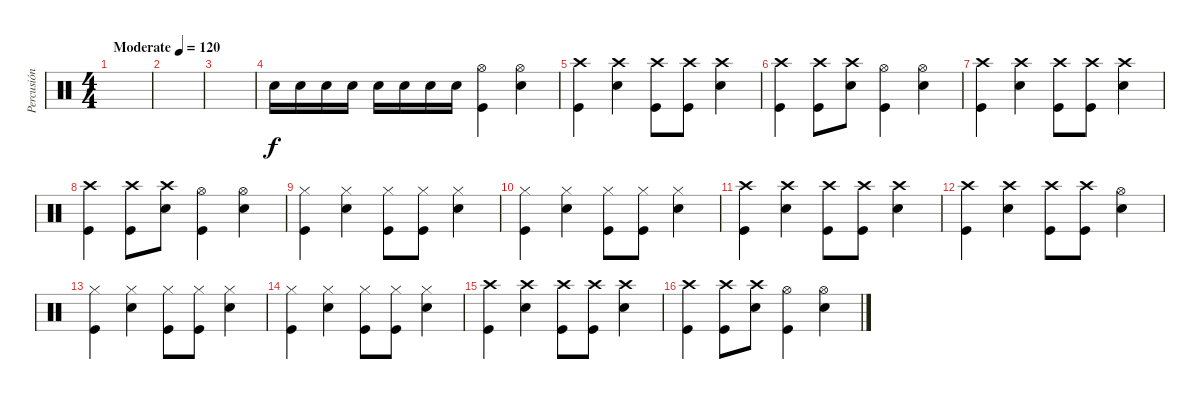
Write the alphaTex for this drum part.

\track ("Percusión" "Percusión") {instrument percussion}
\staff {score}
\articulation defaults
\ts (4 4)
\tempo (120 "Moderate")
\clef neutral
\ks c
|
|
|
"Snare (hit) 2".16 "Snare (hit) 2".16 "Snare (hit) 2".16 "Snare (hit) 2".16 "Snare (hit) 2".16 "Snare (hit) 2".16 "Snare (hit) 2".16 "Snare (hit) 2".16 ("Hi-Hat (open)" "Kick (hit)").4 ("Hi-Hat (open)" "Snare (hit) 2").4 |
("Crash high (hit)" "Kick (hit)").4 ("Crash high (hit)" "Snare (hit) 2").4 ("Crash high (hit)" "Kick (hit)").8 ("Crash high (hit)" "Kick (hit)").8 ("Crash high (hit)" "Snare (hit) 2").4 |
("Crash high (hit)" "Kick (hit)").4 ("Crash high (hit)" "Kick (hit)").8 ("Crash high (hit)" "Snare (hit) 2").8 ("Hi-Hat (open)" "Kick (hit)").4 ("Hi-Hat (open)" "Snare (hit) 2").4 |
("Crash high (hit)" "Kick (hit)").4 ("Crash high (hit)" "Snare (hit) 2").4 ("Crash high (hit)" "Kick (hit)").8 ("Crash high (hit)" "Kick (hit)").8 ("Crash high (hit)" "Snare (hit) 2").4 |
("Crash high (hit)" "Kick (hit)").4 ("Crash high (hit)" "Kick (hit)").8 ("Crash high (hit)" "Snare (hit) 2").8 ("Hi-Hat (open)" "Kick (hit)").4 ("Hi-Hat (open)" "Snare (hit) 2").4 |
("Hi-Hat (closed)" "Kick (hit)").4 ("Hi-Hat (closed)" "Snare (hit) 2").4 ("Hi-Hat (closed)" "Kick (hit)").8 ("Hi-Hat (closed)" "Kick (hit)").8 ("Hi-Hat (closed)" "Snare (hit) 2").4 |
("Hi-Hat (closed)" "Kick (hit)").4 ("Hi-Hat (closed)" "Snare (hit) 2").4 ("Hi-Hat (closed)" "Kick (hit)").8 ("Hi-Hat (closed)" "Kick (hit)").8 ("Hi-Hat (closed)" "Snare (hit) 2").4 |
("Crash high (hit)" "Kick (hit)").4 ("Crash high (hit)" "Snare (hit) 2").4 ("Crash high (hit)" "Kick (hit)").8 ("Crash high (hit)" "Kick (hit)").8 ("Crash high (hit)" "Snare (hit) 2").4 |
("Crash high (hit)" "Kick (hit)").4 ("Crash high (hit)" "Snare (hit) 2").4 ("Crash high (hit)" "Kick (hit)").8 ("Crash high (hit)" "Kick (hit)").8 ("Hi-Hat (open)" "Snare (hit) 2").4 |
("Hi-Hat (closed)" "Kick (hit)").4 ("Hi-Hat (closed)" "Snare (hit) 2").4 ("Hi-Hat (closed)" "Kick (hit)").8 ("Hi-Hat (closed)" "Kick (hit)").8 ("Hi-Hat (closed)" "Snare (hit) 2").4 |
("Hi-Hat (closed)" "Kick (hit)").4 ("Hi-Hat (closed)" "Snare (hit) 2").4 ("Hi-Hat (closed)" "Kick (hit)").8 ("Hi-Hat (closed)" "Kick (hit)").8 ("Hi-Hat (closed)" "Snare (hit) 2").4 |
("Crash high (hit)" "Kick (hit)").4 ("Crash high (hit)" "Snare (hit) 2").4 ("Crash high (hit)" "Kick (hit)").8 ("Crash high (hit)" "Kick (hit)").8 ("Crash high (hit)" "Snare (hit) 2").4 |
("Crash high (hit)" "Kick (hit)").4 ("Crash high (hit)" "Kick (hit)").8 ("Crash high (hit)" "Snare (hit) 2").8 ("Hi-Hat (open)" "Kick (hit)").4 ("Hi-Hat (open)" "Snare (hit) 2").4
